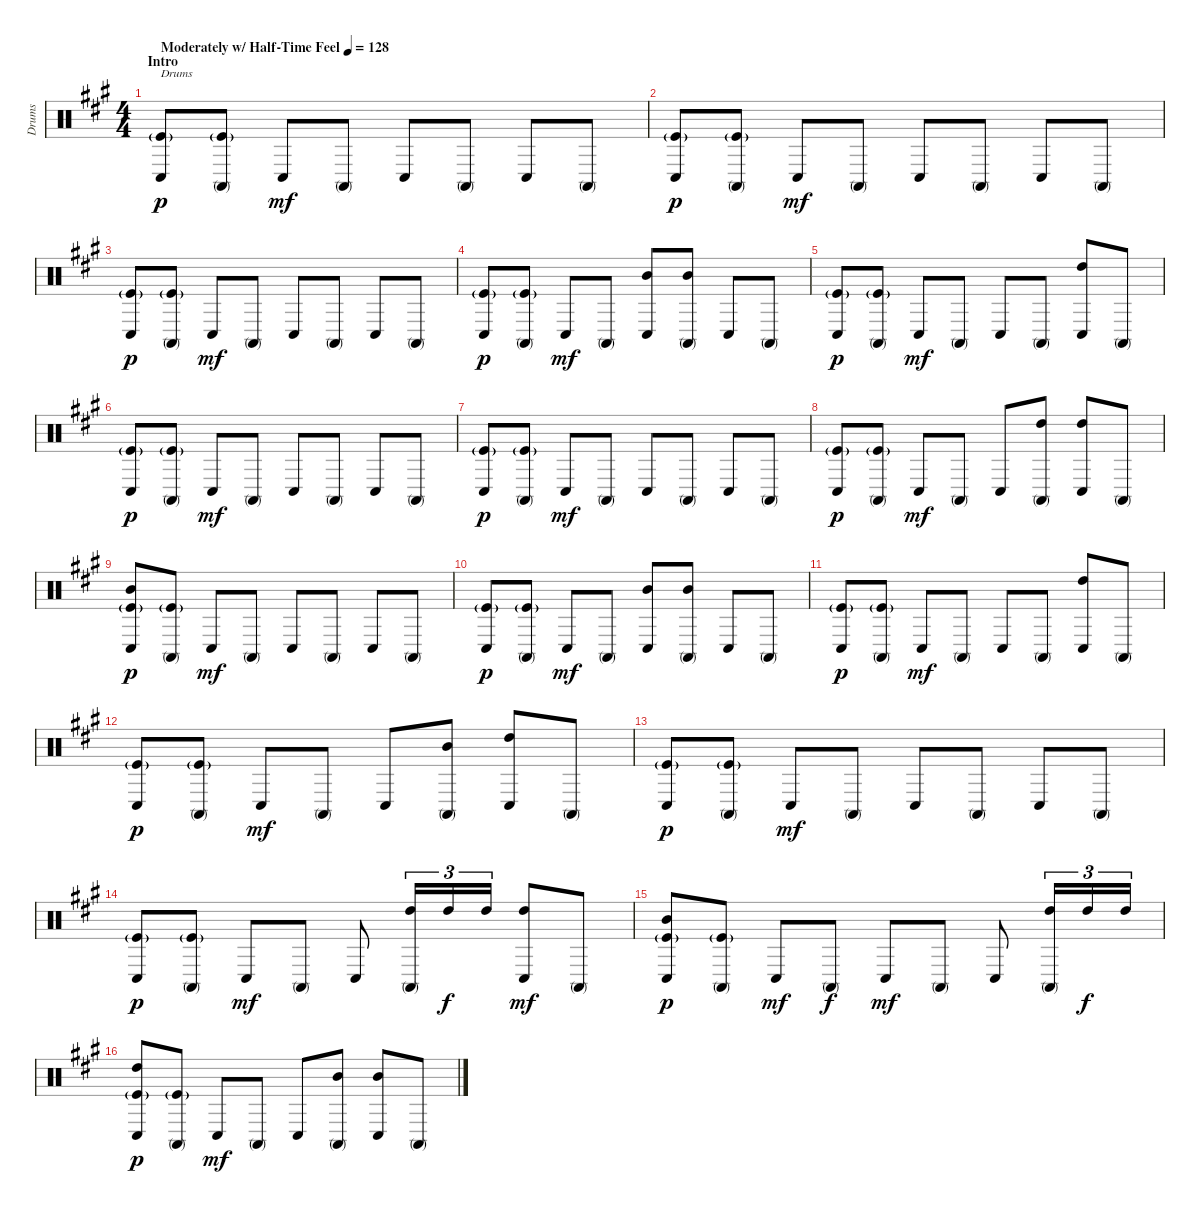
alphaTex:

\track ("Drums" "Drums") {instrument percussion}
\staff {score}
\articulation defaults
\ts (4 4)
\section ("" "Intro")
\tempo (128 "Moderately w/ Half-Time Feel")
\clef neutral
\ks f#minor
("Conga low (hit)" "Kick (hit)"{g}).8{txt "Drums" dy p} ("Conga high (mute)" "Kick (hit)"{g}).8 "Conga low (hit)".8{dy mf} "Conga high (mute)".8 "Conga low (hit)".8 "Conga high (mute)".8 "Conga low (hit)".8 "Conga high (mute)".8 |
("Conga low (hit)" "Kick (hit)"{g}).8{dy p} ("Conga high (mute)" "Kick (hit)"{g}).8 "Conga low (hit)".8{dy mf} "Conga high (mute)".8 "Conga low (hit)".8 "Conga high (mute)".8 "Conga low (hit)".8 "Conga high (mute)".8 |
("Conga low (hit)" "Kick (hit)"{g}).8{dy p} ("Conga high (mute)" "Kick (hit)"{g}).8 "Conga low (hit)".8{dy mf} "Conga high (mute)".8 "Conga low (hit)".8 "Conga high (mute)".8 "Conga low (hit)".8 "Conga high (mute)".8 |
("Conga low (hit)" "Kick (hit)"{g}).8{dy p} ("Conga high (mute)" "Kick (hit)"{g}).8 "Conga low (hit)".8{dy mf} "Conga high (mute)".8 ("Mid Tom (hit)" "Conga low (hit)").8 ("Mid Tom (hit)" "Conga high (mute)").8 "Conga low (hit)".8 "Conga high (mute)".8 |
("Conga low (hit)" "Kick (hit)"{g}).8{dy p} ("Conga high (mute)" "Kick (hit)"{g}).8 "Conga low (hit)".8{dy mf} "Conga high (mute)".8 "Conga low (hit)".8 "Conga high (mute)".8 ("High Tom (hit)" "Conga low (hit)").8 "Conga high (mute)".8 |
("Conga low (hit)" "Kick (hit)"{g}).8{dy p} ("Conga high (mute)" "Kick (hit)"{g}).8 "Conga low (hit)".8{dy mf} "Conga high (mute)".8 "Conga low (hit)".8 "Conga high (mute)".8 "Conga low (hit)".8 "Conga high (mute)".8 |
("Conga low (hit)" "Kick (hit)"{g}).8{dy p} ("Conga high (mute)" "Kick (hit)"{g}).8 "Conga low (hit)".8{dy mf} "Conga high (mute)".8 "Conga low (hit)".8 "Conga high (mute)".8 "Conga low (hit)".8 "Conga high (mute)".8 |
("Conga low (hit)" "Kick (hit)"{g}).8{dy p} ("Conga high (mute)" "Kick (hit)"{g}).8 "Conga low (hit)".8{dy mf} "Conga high (mute)".8 "Conga low (hit)".8 ("High Tom (hit)" "Conga high (mute)").8 ("High Tom (hit)" "Conga low (hit)").8 "Conga high (mute)".8 |
("Mid Tom (hit)" "Conga low (hit)" "Kick (hit)"{g}).8{dy p} ("Conga high (mute)" "Kick (hit)"{g}).8 "Conga low (hit)".8{dy mf} "Conga high (mute)".8 "Conga low (hit)".8 "Conga high (mute)".8 "Conga low (hit)".8 "Conga high (mute)".8 |
("Conga low (hit)" "Kick (hit)"{g}).8{dy p} ("Conga high (mute)" "Kick (hit)"{g}).8 "Conga low (hit)".8{dy mf} "Conga high (mute)".8 ("Mid Tom (hit)" "Conga low (hit)").8 ("Mid Tom (hit)" "Conga high (mute)").8 "Conga low (hit)".8 "Conga high (mute)".8 |
("Conga low (hit)" "Kick (hit)"{g}).8{dy p} ("Conga high (mute)" "Kick (hit)"{g}).8 "Conga low (hit)".8{dy mf} "Conga high (mute)".8 "Conga low (hit)".8 "Conga high (mute)".8 ("High Tom (hit)" "Conga low (hit)").8 "Conga high (mute)".8 |
("Conga low (hit)" "Kick (hit)"{g}).8{dy p} ("Conga high (mute)" "Kick (hit)"{g}).8 "Conga low (hit)".8{dy mf} "Conga high (mute)".8 "Conga low (hit)".8 ("Mid Tom (hit)" "Conga high (mute)").8 ("High Tom (hit)" "Conga low (hit)").8 "Conga high (mute)".8 |
("Conga low (hit)" "Kick (hit)"{g}).8{dy p} ("Conga high (mute)" "Kick (hit)"{g}).8 "Conga low (hit)".8{dy mf} "Conga high (mute)".8 "Conga low (hit)".8 "Conga high (mute)".8 "Conga low (hit)".8 "Conga high (mute)".8 |
("Conga low (hit)" "Kick (hit)"{g}).8{dy p} ("Conga high (mute)" "Kick (hit)"{g}).8 "Conga low (hit)".8{dy mf} "Conga high (mute)".8 "Conga low (hit)".8 ("High Tom (hit)" "Conga high (mute)").16{tu (3 2)} "High Tom (hit)".16{tu (3 2) dy f} "High Tom (hit)".16{tu (3 2)} ("High Tom (hit)" "Conga low (hit)").8{dy mf} "Conga high (mute)".8 |
("Mid Tom (hit)" "Conga low (hit)" "Kick (hit)"{g}).8{dy p} ("Conga high (mute)" "Kick (hit)"{g}).8 "Conga low (hit)".8{dy mf} "Conga high (mute)".8{dy f} "Conga low (hit)".8{dy mf} "Conga high (mute)".8 "Conga low (hit)".8 ("High Tom (hit)" "Conga high (mute)").16{tu (3 2)} "High Tom (hit)".16{tu (3 2) dy f} "High Tom (hit)".16{tu (3 2)} |
("High Tom (hit)" "Conga low (hit)" "Kick (hit)"{g}).8{dy p} ("Conga high (mute)" "Kick (hit)"{g}).8 "Conga low (hit)".8{dy mf} "Conga high (mute)".8 "Conga low (hit)".8 ("Mid Tom (hit)" "Conga high (mute)").8 ("Mid Tom (hit)" "Conga low (hit)").8 "Conga high (mute)".8
